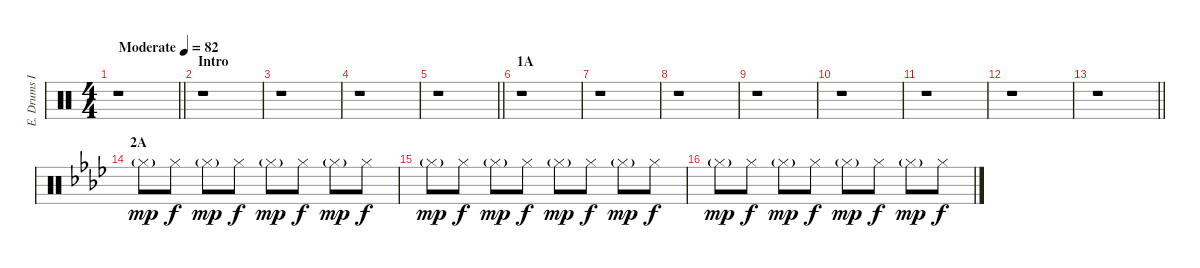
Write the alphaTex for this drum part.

\track ("E. Drums II" "E. Drums I") {instrument percussion}
\staff {score}
\articulation defaults
\ts (4 4)
\tempo (82 "Moderate")
\clef neutral
\barLineRight lightlight
\ks c
r.1{dy mp} |
\section ("" "Intro")
r.1 |
r.1 |
r.1 |
\barLineRight lightlight
r.1 |
\section ("" "1A")
r.1 |
r.1 |
r.1 |
r.1 |
r.1 |
r.1 |
r.1 |
\barLineRight lightlight
r.1 |
\section ("" "2A")
\ks ab "Hi-Hat (closed)"{g}.8 "Hi-Hat (closed)".8{dy f} "Hi-Hat (closed)"{g}.8{dy mp} "Hi-Hat (closed)".8{dy f} "Hi-Hat (closed)"{g}.8{dy mp} "Hi-Hat (closed)".8{dy f} "Hi-Hat (closed)"{g}.8{dy mp} "Hi-Hat (closed)".8{dy f}
|
"Hi-Hat (closed)"{g}.8{dy mp} "Hi-Hat (closed)".8{dy f} "Hi-Hat (closed)"{g}.8{dy mp} "Hi-Hat (closed)".8{dy f} "Hi-Hat (closed)"{g}.8{dy mp} "Hi-Hat (closed)".8{dy f} "Hi-Hat (closed)"{g}.8{dy mp} "Hi-Hat (closed)".8{dy f} |
"Hi-Hat (closed)"{g}.8{dy mp} "Hi-Hat (closed)".8{dy f} "Hi-Hat (closed)"{g}.8{dy mp} "Hi-Hat (closed)".8{dy f} "Hi-Hat (closed)"{g}.8{dy mp} "Hi-Hat (closed)".8{dy f} "Hi-Hat (closed)"{g}.8{dy mp} "Hi-Hat (closed)".8{dy f}
